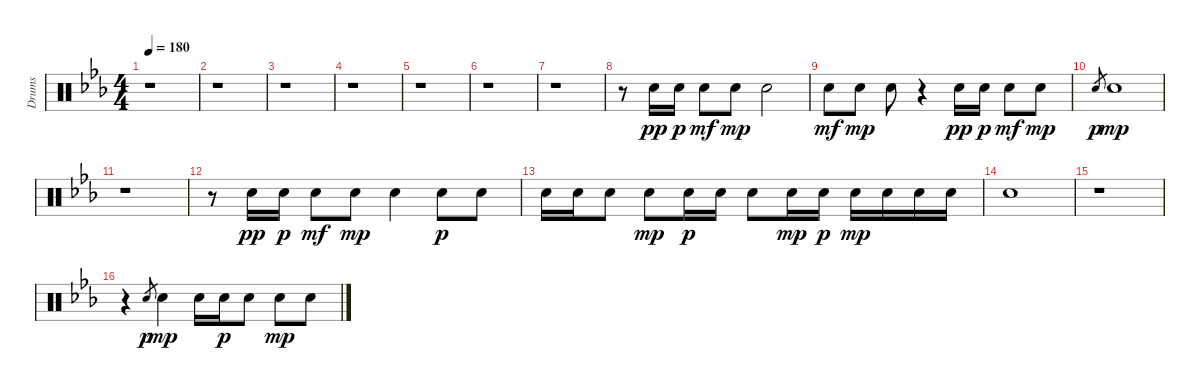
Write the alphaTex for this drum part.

\track ("Drums" "Drums") {instrument percussion}
\staff {score}
\articulation defaults
\ts (4 4)
\tempo 180
\clef neutral
\ks eb
r.1{dy f} |
r.1 |
r.1 |
r.1 |
r.1 |
r.1 |
r.1 |
r.8{volume 8} "Electric Snare (hit)".16{dy pp} "Electric Snare (hit)".16{dy p} "Electric Snare (hit)".8{dy mf} "Electric Snare (hit)".8{dy mp} "Electric Snare (hit)".2 |
"Electric Snare (hit)".8{dy mf} "Electric Snare (hit)".8{dy mp} "Electric Snare (hit)".8 r.4 "Electric Snare (hit)".16{dy pp} "Electric Snare (hit)".16{dy p} "Electric Snare (hit)".8{dy mf} "Electric Snare (hit)".8{dy mp} |
"Electric Snare (hit)".8{gr dy p} "Electric Snare (hit)".1{dy mp} |
r.1 |
r.8 "Electric Snare (hit)".16{dy pp} "Electric Snare (hit)".16{dy p} "Electric Snare (hit)".8{dy mf} "Electric Snare (hit)".8{dy mp} "Electric Snare (hit)".4 "Electric Snare (hit)".8{dy p} "Electric Snare (hit)".8 |
"Electric Snare (hit)".16 "Electric Snare (hit)".16 "Electric Snare (hit)".8 "Electric Snare (hit)".8{dy mp} "Electric Snare (hit)".16{dy p} "Electric Snare (hit)".16 "Electric Snare (hit)".8 "Electric Snare (hit)".16{dy mp} "Electric Snare (hit)".16{dy p} "Electric Snare (hit)".16{dy mp} "Electric Snare (hit)".16 "Electric Snare (hit)".16 "Electric Snare (hit)".16 |
"Electric Snare (hit)".1 |
r.1 |
r.4 "Electric Snare (hit)".8{gr dy p} "Electric Snare (hit)".4{dy mp} "Electric Snare (hit)".16 "Electric Snare (hit)".16{dy p} "Electric Snare (hit)".8 "Electric Snare (hit)".8{dy mp} "Electric Snare (hit)".8
